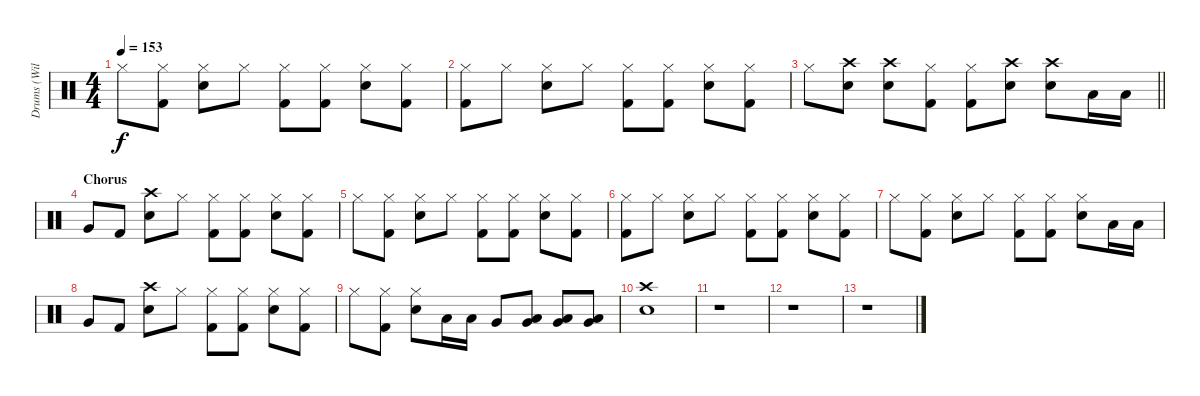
\track ("Drums (Williams)" "Drums (Wil") {instrument percussion}
\staff {score}
\articulation defaults
\ts (4 4)
\tempo 153
\clef neutral
\ks c "Hi-Hat (closed)".8{dy f}
("Hi-Hat (closed)" "Kick (hit) 2").8 ("Hi-Hat (closed)" "Electric Snare (hit)").8 "Hi-Hat (closed)".8 ("Hi-Hat (closed)" "Kick (hit) 2").8 ("Hi-Hat (closed)" "Kick (hit) 2").8 ("Hi-Hat (closed)" "Electric Snare (hit)").8 ("Hi-Hat (closed)" "Kick (hit) 2").8 |
("Hi-Hat (closed)" "Kick (hit) 2").8 "Hi-Hat (closed)".8 ("Hi-Hat (closed)" "Electric Snare (hit)").8 "Hi-Hat (closed)".8 ("Hi-Hat (closed)" "Kick (hit) 2").8 ("Hi-Hat (closed)" "Kick (hit) 2").8 ("Hi-Hat (closed)" "Electric Snare (hit)").8 ("Hi-Hat (closed)" "Kick (hit) 2").8 |
\barLineRight lightlight "Hi-Hat (closed)".8
("Crash high (hit)" "Electric Snare (hit)").8 ("Crash high (hit)" "Electric Snare (hit)").8 ("Hi-Hat (closed)" "Kick (hit) 2").8 ("Hi-Hat (closed)" "Kick (hit) 2").8 ("Crash high (hit)" "Electric Snare (hit)").8 ("Crash high (hit)" "Electric Snare (hit)").8 "Low Tom (hit)".16 "Low Tom (hit)".16 |
\section ("" "Chorus")
"Very Low Tom (hit)".8 "Kick (hit) 2".8 ("Crash high (hit)" "Electric Snare (hit)").8 "Hi-Hat (closed)".8 ("Hi-Hat (closed)" "Kick (hit) 2").8 ("Hi-Hat (closed)" "Kick (hit) 2").8 ("Hi-Hat (closed)" "Electric Snare (hit)").8 ("Hi-Hat (closed)" "Kick (hit) 2").8 |
"Hi-Hat (closed)".8 ("Hi-Hat (closed)" "Kick (hit) 2").8 ("Hi-Hat (closed)" "Electric Snare (hit)").8 "Hi-Hat (closed)".8 ("Hi-Hat (closed)" "Kick (hit) 2").8 ("Hi-Hat (closed)" "Kick (hit) 2").8 ("Hi-Hat (closed)" "Electric Snare (hit)").8 ("Hi-Hat (closed)" "Kick (hit) 2").8 |
("Hi-Hat (closed)" "Kick (hit) 2").8 "Hi-Hat (closed)".8 ("Hi-Hat (closed)" "Electric Snare (hit)").8 "Hi-Hat (closed)".8 ("Hi-Hat (closed)" "Kick (hit) 2").8 ("Hi-Hat (closed)" "Kick (hit) 2").8 ("Hi-Hat (closed)" "Electric Snare (hit)").8 ("Hi-Hat (closed)" "Kick (hit) 2").8 |
"Hi-Hat (closed)".8 ("Hi-Hat (closed)" "Kick (hit) 2").8 ("Hi-Hat (closed)" "Electric Snare (hit)").8 "Hi-Hat (closed)".8 ("Hi-Hat (closed)" "Kick (hit) 2").8 ("Hi-Hat (closed)" "Kick (hit) 2").8 ("Hi-Hat (closed)" "Electric Snare (hit)").8 "Low Tom (hit)".16 "Low Tom (hit)".16 |
"Very Low Tom (hit)".8 "Kick (hit) 2".8 ("Crash high (hit)" "Electric Snare (hit)").8 "Hi-Hat (closed)".8 ("Hi-Hat (closed)" "Kick (hit) 2").8 ("Hi-Hat (closed)" "Kick (hit) 2").8 ("Hi-Hat (closed)" "Electric Snare (hit)").8 ("Hi-Hat (closed)" "Kick (hit) 2").8 |
"Hi-Hat (closed)".8 ("Hi-Hat (closed)" "Kick (hit) 2").8 ("Hi-Hat (closed)" "Electric Snare (hit)").8 "Low Tom (hit)".16 "Low Tom (hit)".16 "Very Low Tom (hit)".8 ("Low Tom (hit)" "Very Low Tom (hit)").8 ("Low Tom (hit)" "Very Low Tom (hit)").8 ("Low Tom (hit)" "Very Low Tom (hit)").8 |
("Crash high (hit)" "Electric Snare (hit)").1 |
r.1 |
r.1 |
r.1
